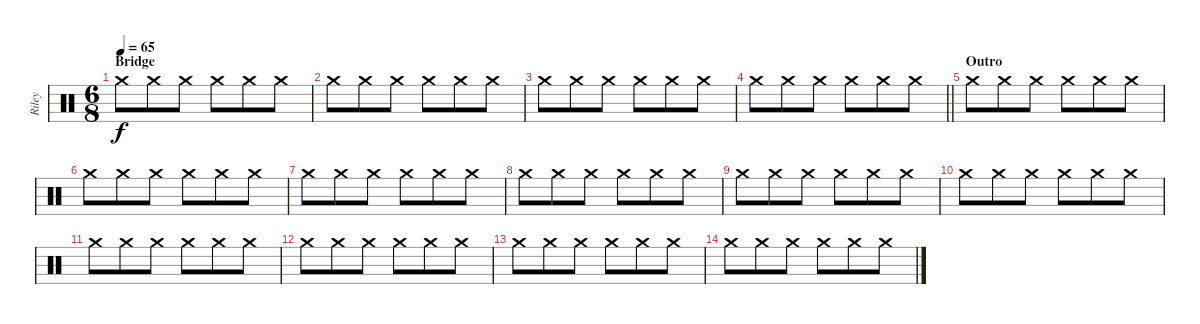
\track ("Riley" "Riley") {instrument percussion}
\staff {score}
\articulation defaults
\ts (6 8)
\section ("" "Bridge")
\tempo 65
\clef neutral
\ks c "Crash medium (hit)".8{dy f} "Crash medium (hit)".8 "Crash medium (hit)".8 "Crash medium (hit)".8 "Crash medium (hit)".8 "Crash medium (hit)".8
|
"Crash medium (hit)".8 "Crash medium (hit)".8 "Crash medium (hit)".8 "Crash medium (hit)".8 "Crash medium (hit)".8 "Crash medium (hit)".8 |
"Crash medium (hit)".8 "Crash medium (hit)".8 "Crash medium (hit)".8 "Crash medium (hit)".8 "Crash medium (hit)".8 "Crash medium (hit)".8 |
\barLineRight lightlight "Crash medium (hit)".8 "Crash medium (hit)".8 "Crash medium (hit)".8 "Crash medium (hit)".8 "Crash medium (hit)".8 "Crash medium (hit)".8
|
\section ("" "Outro")
"Crash medium (hit)".8 "Crash medium (hit)".8 "Crash medium (hit)".8 "Crash medium (hit)".8 "Crash medium (hit)".8 "Crash medium (hit)".8 |
"Crash medium (hit)".8 "Crash medium (hit)".8 "Crash medium (hit)".8 "Crash medium (hit)".8 "Crash medium (hit)".8 "Crash medium (hit)".8 |
"Crash medium (hit)".8 "Crash medium (hit)".8 "Crash medium (hit)".8 "Crash medium (hit)".8 "Crash medium (hit)".8 "Crash medium (hit)".8 |
"Crash medium (hit)".8 "Crash medium (hit)".8 "Crash medium (hit)".8 "Crash medium (hit)".8 "Crash medium (hit)".8 "Crash medium (hit)".8 |
"Crash medium (hit)".8 "Crash medium (hit)".8 "Crash medium (hit)".8 "Crash medium (hit)".8 "Crash medium (hit)".8 "Crash medium (hit)".8 |
"Crash medium (hit)".8 "Crash medium (hit)".8 "Crash medium (hit)".8 "Crash medium (hit)".8 "Crash medium (hit)".8 "Crash medium (hit)".8 |
"Crash medium (hit)".8 "Crash medium (hit)".8 "Crash medium (hit)".8 "Crash medium (hit)".8 "Crash medium (hit)".8 "Crash medium (hit)".8 |
"Crash medium (hit)".8 "Crash medium (hit)".8 "Crash medium (hit)".8 "Crash medium (hit)".8 "Crash medium (hit)".8 "Crash medium (hit)".8 |
"Crash medium (hit)".8 "Crash medium (hit)".8 "Crash medium (hit)".8 "Crash medium (hit)".8 "Crash medium (hit)".8 "Crash medium (hit)".8 |
"Crash medium (hit)".8 "Crash medium (hit)".8 "Crash medium (hit)".8 "Crash medium (hit)".8 "Crash medium (hit)".8 "Crash medium (hit)".8
